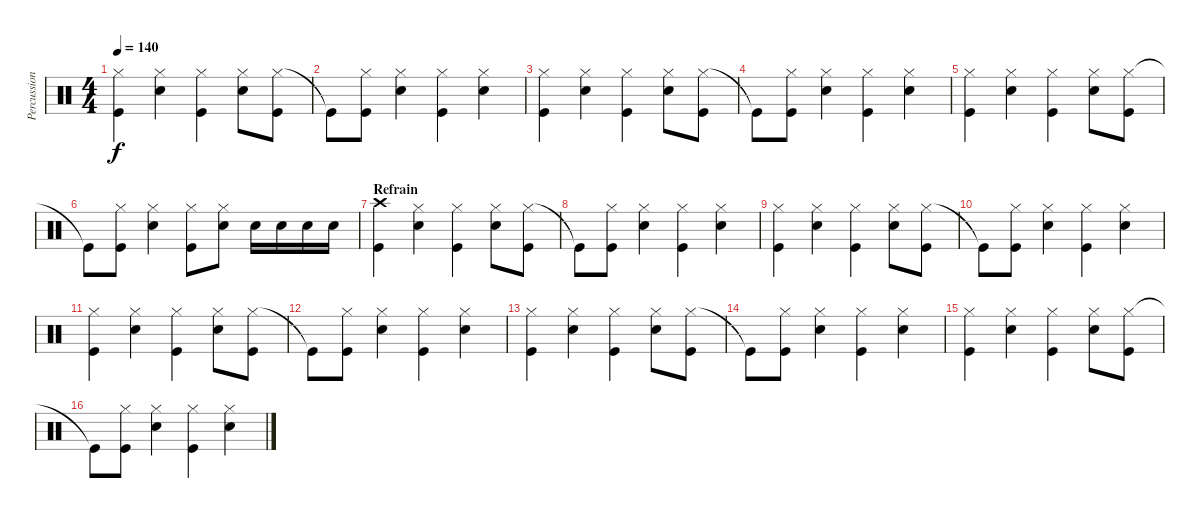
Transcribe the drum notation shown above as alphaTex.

\track ("Percussion" "Percussion") {instrument percussion}
\staff {score}
\articulation defaults
\ts (4 4)
\tempo 140
\clef neutral
\ks c
("Hi-Hat (closed)" "Kick (hit)").4{dy f} ("Hi-Hat (closed)" "Snare (hit) 2").4 ("Hi-Hat (closed)" "Kick (hit)").4 ("Hi-Hat (closed)" "Snare (hit) 2").8 ("Hi-Hat (closed)" "Kick (hit)").8 |
"Kick (hit)"{t}.8 ("Hi-Hat (closed)" "Kick (hit)").8 ("Hi-Hat (closed)" "Snare (hit) 2").4 ("Hi-Hat (closed)" "Kick (hit)").4 ("Hi-Hat (closed)" "Snare (hit) 2").4 |
("Hi-Hat (closed)" "Kick (hit)").4 ("Hi-Hat (closed)" "Snare (hit) 2").4 ("Hi-Hat (closed)" "Kick (hit)").4 ("Hi-Hat (closed)" "Snare (hit) 2").8 ("Hi-Hat (closed)" "Kick (hit)").8 |
"Kick (hit)"{t}.8 ("Hi-Hat (closed)" "Kick (hit)").8 ("Hi-Hat (closed)" "Snare (hit) 2").4 ("Hi-Hat (closed)" "Kick (hit)").4 ("Hi-Hat (closed)" "Snare (hit) 2").4 |
("Hi-Hat (closed)" "Kick (hit)").4 ("Hi-Hat (closed)" "Snare (hit) 2").4 ("Hi-Hat (closed)" "Kick (hit)").4 ("Hi-Hat (closed)" "Snare (hit) 2").8 ("Hi-Hat (closed)" "Kick (hit)").8 |
"Kick (hit)"{t}.8 ("Hi-Hat (closed)" "Kick (hit)").8 ("Hi-Hat (closed)" "Snare (hit) 2").4 ("Hi-Hat (closed)" "Kick (hit)").8 ("Hi-Hat (closed)" "Snare (hit) 2").8 "Snare (hit) 2".16 "Snare (hit) 2".16 "Snare (hit) 2".16 "Snare (hit) 2".16 |
\section ("" "Refrain")
("Crash high (hit)" "Kick (hit)").4 ("Hi-Hat (closed)" "Snare (hit) 2").4 ("Hi-Hat (closed)" "Kick (hit)").4 ("Hi-Hat (closed)" "Snare (hit) 2").8 ("Hi-Hat (closed)" "Kick (hit)").8 |
"Kick (hit)"{t}.8 ("Hi-Hat (closed)" "Kick (hit)").8 ("Hi-Hat (closed)" "Snare (hit) 2").4 ("Hi-Hat (closed)" "Kick (hit)").4 ("Hi-Hat (closed)" "Snare (hit) 2").4 |
("Hi-Hat (closed)" "Kick (hit)").4 ("Hi-Hat (closed)" "Snare (hit) 2").4 ("Hi-Hat (closed)" "Kick (hit)").4 ("Hi-Hat (closed)" "Snare (hit) 2").8 ("Hi-Hat (closed)" "Kick (hit)").8 |
"Kick (hit)"{t}.8 ("Hi-Hat (closed)" "Kick (hit)").8 ("Hi-Hat (closed)" "Snare (hit) 2").4 ("Hi-Hat (closed)" "Kick (hit)").4 ("Hi-Hat (closed)" "Snare (hit) 2").4 |
("Hi-Hat (closed)" "Kick (hit)").4 ("Hi-Hat (closed)" "Snare (hit) 2").4 ("Hi-Hat (closed)" "Kick (hit)").4 ("Hi-Hat (closed)" "Snare (hit) 2").8 ("Hi-Hat (closed)" "Kick (hit)").8 |
"Kick (hit)"{t}.8 ("Hi-Hat (closed)" "Kick (hit)").8 ("Hi-Hat (closed)" "Snare (hit) 2").4 ("Hi-Hat (closed)" "Kick (hit)").4 ("Hi-Hat (closed)" "Snare (hit) 2").4 |
("Hi-Hat (closed)" "Kick (hit)").4 ("Hi-Hat (closed)" "Snare (hit) 2").4 ("Hi-Hat (closed)" "Kick (hit)").4 ("Hi-Hat (closed)" "Snare (hit) 2").8 ("Hi-Hat (closed)" "Kick (hit)").8 |
"Kick (hit)"{t}.8 ("Hi-Hat (closed)" "Kick (hit)").8 ("Hi-Hat (closed)" "Snare (hit) 2").4 ("Hi-Hat (closed)" "Kick (hit)").4 ("Hi-Hat (closed)" "Snare (hit) 2").4 |
("Hi-Hat (closed)" "Kick (hit)").4 ("Hi-Hat (closed)" "Snare (hit) 2").4 ("Hi-Hat (closed)" "Kick (hit)").4 ("Hi-Hat (closed)" "Snare (hit) 2").8 ("Hi-Hat (closed)" "Kick (hit)").8 |
"Kick (hit)"{t}.8 ("Hi-Hat (closed)" "Kick (hit)").8 ("Hi-Hat (closed)" "Snare (hit) 2").4 ("Hi-Hat (closed)" "Kick (hit)").4 ("Hi-Hat (closed)" "Snare (hit) 2").4
